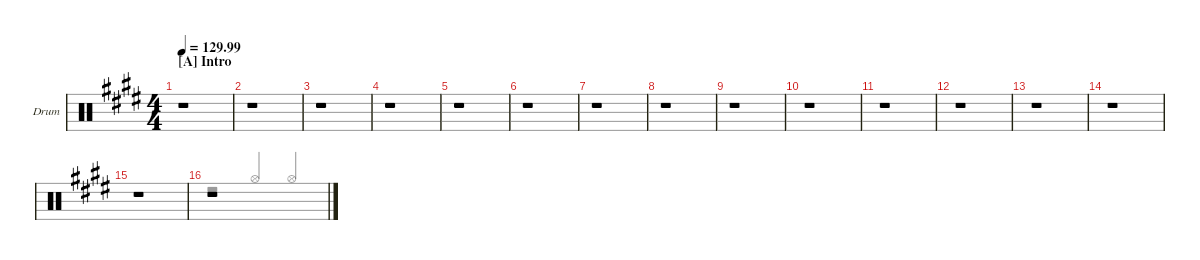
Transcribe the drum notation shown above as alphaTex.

\defaultSystemsLayout 4
\hideDynamics
\bracketExtendMode nobrackets
\firstSystemTrackNameOrientation horizontal
\track ("BATTERIE" "Drum") {defaultSystemsLayout 4 instrument percussion}
\staff {score}
\articulation defaults
\voice
\ts (4 4)
\beaming (8 2 2 2 2)
\section ("A" "Intro")
\tempo
129.99
\accidentals auto
\clef neutral
\ottava regular
\simile none
\ks e
r.1{dy mf beam Down} |
r.1{beam Down} |
r.1{beam Down} |
r.1{beam Down} |
r.1{beam Down} |
r.1{beam Down} |
r.1{beam Down} |
r.1{beam Down} |
r.1{beam Down} |
r.1{beam Down} |
r.1{beam Down} |
r.1{beam Down} |
r.1{beam Down} |
r.1{beam Down} |
r.1{beam Down} |
r.1{beam Down}
\voice
\clef neutral
\ottava regular
\simile none
\ks e
|
|
|
|
|
|
|
|
|
|
|
|
|
|
|
r.2{beam Up} "Hi-Hat (open)"{acc forcenatural}.4{beam Up} "Hi-Hat (open)"{acc forcenatural}.4{beam Up}
